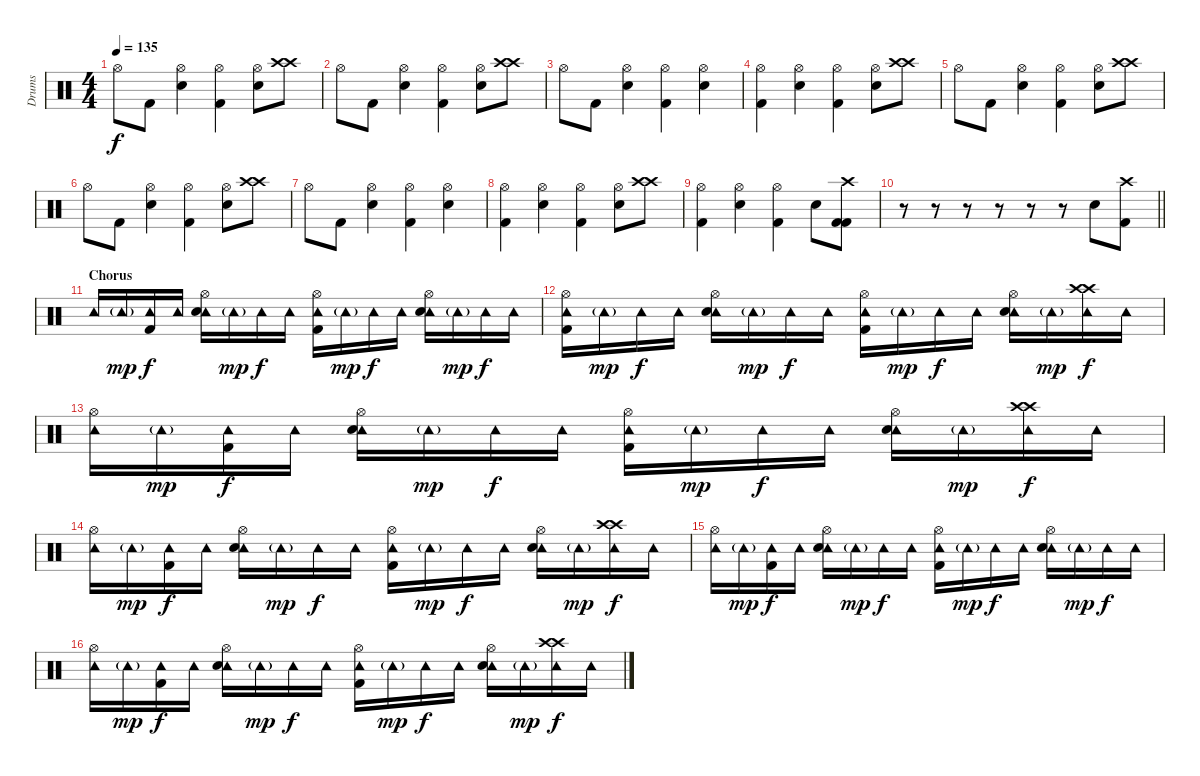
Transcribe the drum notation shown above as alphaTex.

\track ("Drums" "Drums") {instrument percussion}
\staff {score}
\articulation defaults
\ts (4 4)
\tempo 135
\clef neutral
\ks c "Hi-Hat (open)".8{dy f} "Kick (hit) 2".8
("Hi-Hat (open)" "Electric Snare (hit)").4 ("Hi-Hat (open)" "Kick (hit) 2").4 ("Hi-Hat (open)" "Electric Snare (hit)").8 ("Crash high (hit)" "Crash high (hit)").8 |
"Hi-Hat (open)".8 "Kick (hit) 2".8 ("Hi-Hat (open)" "Electric Snare (hit)").4 ("Hi-Hat (open)" "Kick (hit) 2").4 ("Hi-Hat (open)" "Electric Snare (hit)").8 ("Crash high (hit)" "Crash high (hit)").8 |
"Hi-Hat (open)".8 "Kick (hit) 2".8 ("Hi-Hat (open)" "Electric Snare (hit)").4 ("Hi-Hat (open)" "Kick (hit) 2").4 ("Hi-Hat (open)" "Electric Snare (hit)").4 |
("Hi-Hat (open)" "Kick (hit) 2").4 ("Hi-Hat (open)" "Electric Snare (hit)").4 ("Hi-Hat (open)" "Kick (hit) 2").4 ("Hi-Hat (open)" "Electric Snare (hit)").8 ("Crash high (hit)" "Crash high (hit)").8 |
"Hi-Hat (open)".8 "Kick (hit) 2".8 ("Hi-Hat (open)" "Electric Snare (hit)").4 ("Hi-Hat (open)" "Kick (hit) 2").4 ("Hi-Hat (open)" "Electric Snare (hit)").8 ("Crash high (hit)" "Crash high (hit)").8 |
"Hi-Hat (open)".8 "Kick (hit) 2".8 ("Hi-Hat (open)" "Electric Snare (hit)").4 ("Hi-Hat (open)" "Kick (hit) 2").4 ("Hi-Hat (open)" "Electric Snare (hit)").8 ("Crash high (hit)" "Crash high (hit)").8 |
"Hi-Hat (open)".8 "Kick (hit) 2".8 ("Hi-Hat (open)" "Electric Snare (hit)").4 ("Hi-Hat (open)" "Kick (hit) 2").4 ("Hi-Hat (open)" "Electric Snare (hit)").4 |
("Hi-Hat (open)" "Kick (hit) 2").4 ("Hi-Hat (open)" "Electric Snare (hit)").4 ("Hi-Hat (open)" "Kick (hit) 2").4 ("Hi-Hat (open)" "Electric Snare (hit)").8 ("Crash high (hit)" "Crash high (hit)").8 |
("Hi-Hat (open)" "Kick (hit) 2").4 ("Hi-Hat (open)" "Electric Snare (hit)").4 ("Hi-Hat (open)" "Kick (hit) 2").4 "Electric Snare (hit)".8 ("Crash high (hit)" "Kick (hit) 2" "Kick (hit) 2").8 |
\barLineRight lightlight
r.8 r.8 r.8 r.8 r.8 r.8 "Electric Snare (hit)".8 ("Crash high (hit)" "Kick (hit) 2").8 |
\section ("" "Chorus")
"Tambourine (hit)".16 "Tambourine (hit)"{g}.16{dy mp} ("Tambourine (hit)" "Kick (hit) 2").16{dy f} "Tambourine (hit)".16 ("Hi-Hat (open)" "Tambourine (hit)" "Electric Snare (hit)").16 "Tambourine (hit)"{g}.16{dy mp} "Tambourine (hit)".16{dy f} "Tambourine (hit)".16 ("Hi-Hat (open)" "Tambourine (hit)" "Kick (hit) 2").16 "Tambourine (hit)"{g}.16{dy mp} "Tambourine (hit)".16{dy f} "Tambourine (hit)".16 ("Hi-Hat (open)" "Tambourine (hit)" "Electric Snare (hit)").16 "Tambourine (hit)"{g}.16{dy mp} "Tambourine (hit)".16{dy f} "Tambourine (hit)".16 |
("Hi-Hat (open)" "Tambourine (hit)" "Kick (hit) 2").16 "Tambourine (hit)"{g}.16{dy mp} "Tambourine (hit)".16{dy f} "Tambourine (hit)".16 ("Hi-Hat (open)" "Tambourine (hit)" "Electric Snare (hit)").16 "Tambourine (hit)"{g}.16{dy mp} "Tambourine (hit)".16{dy f} "Tambourine (hit)".16 ("Hi-Hat (open)" "Tambourine (hit)" "Kick (hit) 2").16 "Tambourine (hit)"{g}.16{dy mp} "Tambourine (hit)".16{dy f} "Tambourine (hit)".16 ("Hi-Hat (open)" "Tambourine (hit)" "Electric Snare (hit)").16 "Tambourine (hit)"{g}.16{dy mp} ("Tambourine (hit)" "Crash high (hit)" "Crash high (hit)").16{dy f} "Tambourine (hit)".16 |
("Hi-Hat (open)" "Tambourine (hit)").16 "Tambourine (hit)"{g}.16{dy mp} ("Tambourine (hit)" "Kick (hit) 2").16{dy f} "Tambourine (hit)".16 ("Hi-Hat (open)" "Tambourine (hit)" "Electric Snare (hit)").16 "Tambourine (hit)"{g}.16{dy mp} "Tambourine (hit)".16{dy f} "Tambourine (hit)".16 ("Hi-Hat (open)" "Tambourine (hit)" "Kick (hit) 2").16 "Tambourine (hit)"{g}.16{dy mp} "Tambourine (hit)".16{dy f} "Tambourine (hit)".16 ("Hi-Hat (open)" "Tambourine (hit)" "Electric Snare (hit)").16 "Tambourine (hit)"{g}.16{dy mp} ("Tambourine (hit)" "Crash high (hit)" "Crash high (hit)").16{dy f} "Tambourine (hit)".16 |
("Hi-Hat (open)" "Tambourine (hit)").16 "Tambourine (hit)"{g}.16{dy mp} ("Tambourine (hit)" "Kick (hit) 2").16{dy f} "Tambourine (hit)".16 ("Hi-Hat (open)" "Tambourine (hit)" "Electric Snare (hit)").16 "Tambourine (hit)"{g}.16{dy mp} "Tambourine (hit)".16{dy f} "Tambourine (hit)".16 ("Hi-Hat (open)" "Tambourine (hit)" "Kick (hit) 2").16 "Tambourine (hit)"{g}.16{dy mp} "Tambourine (hit)".16{dy f} "Tambourine (hit)".16 ("Hi-Hat (open)" "Tambourine (hit)" "Electric Snare (hit)").16 "Tambourine (hit)"{g}.16{dy mp} ("Tambourine (hit)" "Crash high (hit)" "Crash high (hit)").16{dy f} "Tambourine (hit)".16 |
("Hi-Hat (open)" "Tambourine (hit)").16 "Tambourine (hit)"{g}.16{dy mp} ("Tambourine (hit)" "Kick (hit) 2").16{dy f} "Tambourine (hit)".16 ("Hi-Hat (open)" "Tambourine (hit)" "Electric Snare (hit)").16 "Tambourine (hit)"{g}.16{dy mp} "Tambourine (hit)".16{dy f} "Tambourine (hit)".16 ("Hi-Hat (open)" "Tambourine (hit)" "Kick (hit) 2").16 "Tambourine (hit)"{g}.16{dy mp} "Tambourine (hit)".16{dy f} "Tambourine (hit)".16 ("Hi-Hat (open)" "Tambourine (hit)" "Electric Snare (hit)").16 "Tambourine (hit)"{g}.16{dy mp} "Tambourine (hit)".16{dy f} "Tambourine (hit)".16 |
("Hi-Hat (open)" "Tambourine (hit)").16 "Tambourine (hit)"{g}.16{dy mp} ("Tambourine (hit)" "Kick (hit) 2").16{dy f} "Tambourine (hit)".16 ("Hi-Hat (open)" "Tambourine (hit)" "Electric Snare (hit)").16 "Tambourine (hit)"{g}.16{dy mp} "Tambourine (hit)".16{dy f} "Tambourine (hit)".16 ("Hi-Hat (open)" "Tambourine (hit)" "Kick (hit) 2").16 "Tambourine (hit)"{g}.16{dy mp} "Tambourine (hit)".16{dy f} "Tambourine (hit)".16 ("Hi-Hat (open)" "Tambourine (hit)" "Electric Snare (hit)").16 "Tambourine (hit)"{g}.16{dy mp} ("Tambourine (hit)" "Crash high (hit)" "Crash high (hit)").16{dy f} "Tambourine (hit)".16
